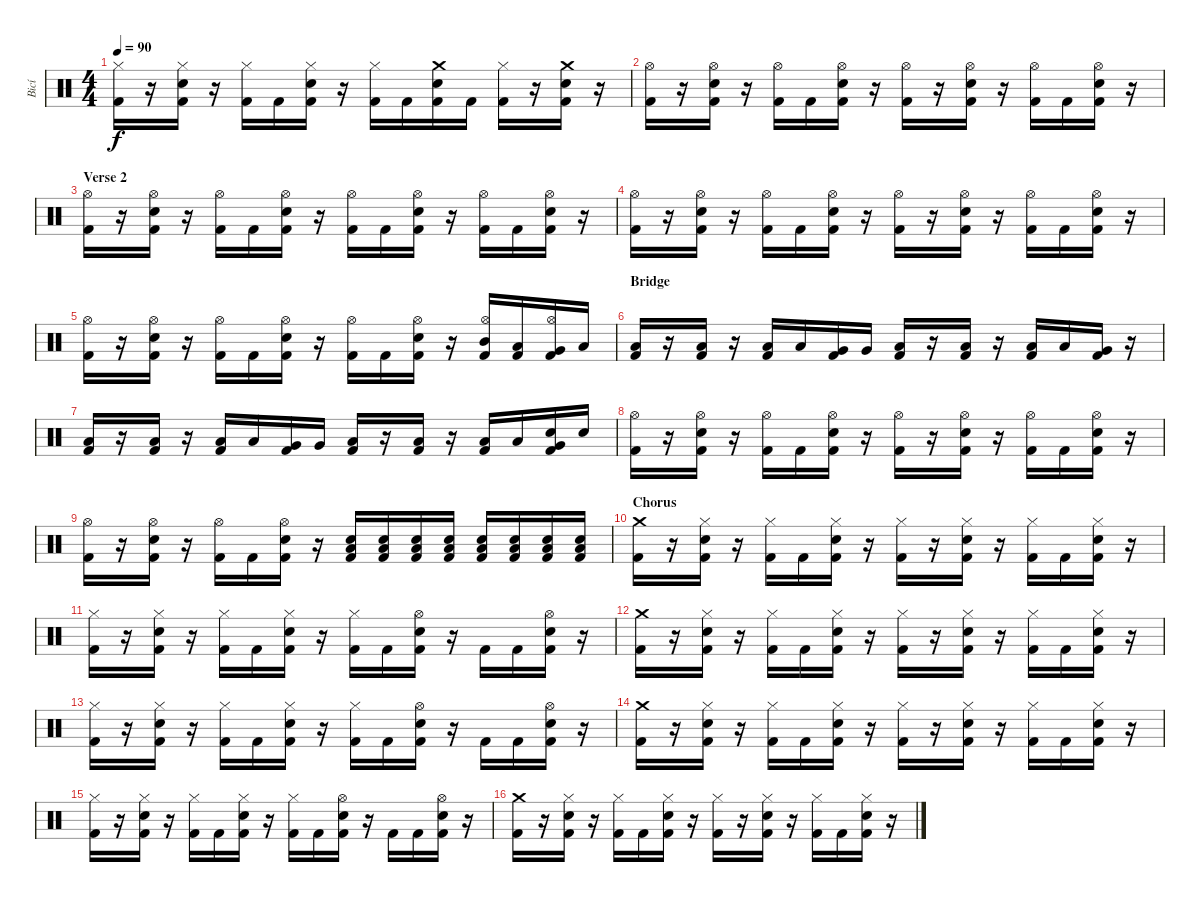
\track ("Bicí" "Bicí") {instrument percussion}
\staff {score}
\articulation defaults
\ts (4 4)
\tempo 90
\clef neutral
\ks c
("Hi-Hat (closed)" "Kick (hit) 2").16{dy f} r.16 ("Hi-Hat (closed)" "Electric Snare (hit)" "Kick (hit) 2").16 r.16 ("Hi-Hat (closed)" "Kick (hit) 2").16 "Kick (hit) 2".16 ("Hi-Hat (closed)" "Electric Snare (hit)" "Kick (hit) 2").16 r.16 ("Hi-Hat (closed)" "Kick (hit) 2").16 "Kick (hit) 2".16 ("Crash medium (hit)" "Electric Snare (hit)" "Kick (hit) 2").16 "Kick (hit) 2".16 ("Hi-Hat (closed)" "Kick (hit) 2").16 r.16 ("Crash medium (hit)" "Electric Snare (hit)" "Kick (hit) 2").16 r.16 |
("Hi-Hat (open)" "Kick (hit) 2").16 r.16 ("Hi-Hat (open)" "Electric Snare (hit)" "Kick (hit) 2").16 r.16 ("Hi-Hat (open)" "Kick (hit) 2").16 "Kick (hit) 2".16 ("Hi-Hat (open)" "Electric Snare (hit)" "Kick (hit) 2").16 r.16 ("Hi-Hat (open)" "Kick (hit) 2").16 r.16 ("Hi-Hat (open)" "Electric Snare (hit)" "Kick (hit) 2").16 r.16 ("Hi-Hat (open)" "Kick (hit) 2").16 "Kick (hit) 2".16 ("Hi-Hat (open)" "Electric Snare (hit)" "Kick (hit) 2").16 r.16 |
\section ("" "Verse 2")
("Hi-Hat (open)" "Kick (hit) 2").16 r.16 ("Hi-Hat (open)" "Electric Snare (hit)" "Kick (hit) 2").16 r.16 ("Hi-Hat (open)" "Kick (hit) 2").16 "Kick (hit) 2".16 ("Hi-Hat (open)" "Electric Snare (hit)" "Kick (hit) 2").16 r.16 ("Hi-Hat (open)" "Kick (hit) 2").16 "Kick (hit) 2".16 ("Hi-Hat (open)" "Electric Snare (hit)" "Kick (hit) 2").16 r.16 ("Hi-Hat (open)" "Kick (hit) 2").16 "Kick (hit) 2".16 ("Hi-Hat (open)" "Electric Snare (hit)" "Kick (hit) 2").16 r.16 |
("Hi-Hat (open)" "Kick (hit) 2").16 r.16 ("Hi-Hat (open)" "Electric Snare (hit)" "Kick (hit) 2").16 r.16 ("Hi-Hat (open)" "Kick (hit) 2").16 "Kick (hit) 2".16 ("Hi-Hat (open)" "Electric Snare (hit)" "Kick (hit) 2").16 r.16 ("Hi-Hat (open)" "Kick (hit) 2").16 r.16 ("Hi-Hat (open)" "Electric Snare (hit)" "Kick (hit) 2").16 r.16 ("Hi-Hat (open)" "Kick (hit) 2").16 "Kick (hit) 2".16 ("Hi-Hat (open)" "Electric Snare (hit)" "Kick (hit) 2").16 r.16 |
("Hi-Hat (open)" "Kick (hit) 2").16 r.16 ("Hi-Hat (open)" "Electric Snare (hit)" "Kick (hit) 2").16 r.16 ("Hi-Hat (open)" "Kick (hit) 2").16 "Kick (hit) 2".16 ("Hi-Hat (open)" "Electric Snare (hit)" "Kick (hit) 2").16 r.16 ("Hi-Hat (open)" "Kick (hit) 2").16 "Kick (hit) 2".16 ("Hi-Hat (open)" "Electric Snare (hit)" "Kick (hit) 2").16 r.16 ("Hi-Hat (open)" "Mid Tom (hit)" "Kick (hit) 2").16 ("Low Tom (hit)" "Kick (hit) 2").16 ("Hi-Hat (open)" "Very Low Tom (hit)" "Kick (hit) 2").16 "Low Floor Tom (hit)".16 |
\section ("" "Bridge")
("Low Tom (hit)" "Kick (hit) 2").16 r.16 ("Low Tom (hit)" "Kick (hit) 2").16 r.16 ("Low Tom (hit)" "Kick (hit) 2").16 "Low Tom (hit)".16 ("Very Low Tom (hit)" "Kick (hit) 2").16 "Very Low Tom (hit)".16 ("Low Tom (hit)" "Kick (hit) 2").16 r.16 ("Low Tom (hit)" "Kick (hit) 2").16 r.16 ("Low Tom (hit)" "Kick (hit) 2").16 "Low Tom (hit)".16 ("Very Low Tom (hit)" "Kick (hit) 2").16 r.16 |
("Low Tom (hit)" "Kick (hit) 2").16 r.16 ("Low Tom (hit)" "Kick (hit) 2").16 r.16 ("Low Tom (hit)" "Kick (hit) 2").16 "Low Tom (hit)".16 ("Very Low Tom (hit)" "Kick (hit) 2").16 "Very Low Tom (hit)".16 ("Low Tom (hit)" "Kick (hit) 2").16 r.16 ("Low Tom (hit)" "Kick (hit) 2").16 r.16 ("Low Tom (hit)" "Kick (hit) 2").16 "Low Tom (hit)".16 ("Very Low Tom (hit)" "Electric Snare (hit)" "Kick (hit) 2").16 "Electric Snare (hit)".16 |
("Hi-Hat (open)" "Kick (hit) 2").16 r.16 ("Hi-Hat (open)" "Electric Snare (hit)" "Kick (hit) 2").16 r.16 ("Hi-Hat (open)" "Kick (hit) 2").16 "Kick (hit) 2".16 ("Hi-Hat (open)" "Electric Snare (hit)" "Kick (hit) 2").16 r.16 ("Hi-Hat (open)" "Kick (hit) 2").16 r.16 ("Hi-Hat (open)" "Electric Snare (hit)" "Kick (hit) 2").16 r.16 ("Hi-Hat (open)" "Kick (hit) 2").16 "Kick (hit) 2".16 ("Hi-Hat (open)" "Electric Snare (hit)" "Kick (hit) 2").16 r.16 |
("Hi-Hat (open)" "Kick (hit) 2").16 r.16 ("Hi-Hat (open)" "Electric Snare (hit)" "Kick (hit) 2").16 r.16 ("Hi-Hat (open)" "Kick (hit) 2").16 "Kick (hit) 2".16 ("Hi-Hat (open)" "Electric Snare (hit)" "Kick (hit) 2").16 r.16 ("Low Tom (hit)" "Electric Snare (hit)" "Kick (hit) 2").16 ("Low Tom (hit)" "Electric Snare (hit)" "Kick (hit) 2").16 ("Low Tom (hit)" "Electric Snare (hit)" "Kick (hit) 2").16 ("Low Tom (hit)" "Electric Snare (hit)" "Kick (hit) 2").16 ("Low Tom (hit)" "Electric Snare (hit)" "Kick (hit) 2").16 ("Low Tom (hit)" "Electric Snare (hit)" "Kick (hit) 2").16 ("Low Tom (hit)" "Electric Snare (hit)" "Kick (hit) 2").16 ("Low Tom (hit)" "Electric Snare (hit)" "Kick (hit) 2").16 |
\section ("" "Chorus")
("Crash medium (hit)" "Kick (hit) 2").16 r.16 ("Hi-Hat (closed)" "Electric Snare (hit)" "Kick (hit) 2").16 r.16 ("Hi-Hat (closed)" "Kick (hit) 2").16 "Kick (hit) 2".16 ("Hi-Hat (closed)" "Electric Snare (hit)" "Kick (hit) 2").16 r.16 ("Hi-Hat (closed)" "Kick (hit) 2").16 r.16 ("Hi-Hat (closed)" "Electric Snare (hit)" "Kick (hit) 2").16 r.16 ("Hi-Hat (closed)" "Kick (hit) 2").16 "Kick (hit) 2".16 ("Hi-Hat (closed)" "Electric Snare (hit)" "Kick (hit) 2").16 r.16 |
("Hi-Hat (closed)" "Kick (hit) 2").16 r.16 ("Hi-Hat (closed)" "Electric Snare (hit)" "Kick (hit) 2").16 r.16 ("Hi-Hat (closed)" "Kick (hit) 2").16 "Kick (hit) 2".16 ("Hi-Hat (closed)" "Electric Snare (hit)" "Kick (hit) 2").16 r.16 ("Hi-Hat (closed)" "Kick (hit) 2").16 "Kick (hit) 2".16 ("Hi-Hat (open)" "Electric Snare (hit)" "Kick (hit) 2").16 r.16 "Kick (hit) 2".16 "Kick (hit) 2".16 ("Hi-Hat (open)" "Electric Snare (hit)" "Kick (hit) 2").16 r.16 |
("Crash medium (hit)" "Kick (hit) 2").16 r.16 ("Hi-Hat (closed)" "Electric Snare (hit)" "Kick (hit) 2").16 r.16 ("Hi-Hat (closed)" "Kick (hit) 2").16 "Kick (hit) 2".16 ("Hi-Hat (closed)" "Electric Snare (hit)" "Kick (hit) 2").16 r.16 ("Hi-Hat (closed)" "Kick (hit) 2").16 r.16 ("Hi-Hat (closed)" "Electric Snare (hit)" "Kick (hit) 2").16 r.16 ("Hi-Hat (closed)" "Kick (hit) 2").16 "Kick (hit) 2".16 ("Hi-Hat (closed)" "Electric Snare (hit)" "Kick (hit) 2").16 r.16 |
("Hi-Hat (closed)" "Kick (hit) 2").16 r.16 ("Hi-Hat (closed)" "Electric Snare (hit)" "Kick (hit) 2").16 r.16 ("Hi-Hat (closed)" "Kick (hit) 2").16 "Kick (hit) 2".16 ("Hi-Hat (closed)" "Electric Snare (hit)" "Kick (hit) 2").16 r.16 ("Hi-Hat (closed)" "Kick (hit) 2").16 "Kick (hit) 2".16 ("Hi-Hat (open)" "Electric Snare (hit)" "Kick (hit) 2").16 r.16 "Kick (hit) 2".16 "Kick (hit) 2".16 ("Hi-Hat (open)" "Electric Snare (hit)" "Kick (hit) 2").16 r.16 |
("Crash medium (hit)" "Kick (hit) 2").16 r.16 ("Hi-Hat (closed)" "Electric Snare (hit)" "Kick (hit) 2").16 r.16 ("Hi-Hat (closed)" "Kick (hit) 2").16 "Kick (hit) 2".16 ("Hi-Hat (closed)" "Electric Snare (hit)" "Kick (hit) 2").16 r.16 ("Hi-Hat (closed)" "Kick (hit) 2").16 r.16 ("Hi-Hat (closed)" "Electric Snare (hit)" "Kick (hit) 2").16 r.16 ("Hi-Hat (closed)" "Kick (hit) 2").16 "Kick (hit) 2".16 ("Hi-Hat (closed)" "Electric Snare (hit)" "Kick (hit) 2").16 r.16 |
("Hi-Hat (closed)" "Kick (hit) 2").16 r.16 ("Hi-Hat (closed)" "Electric Snare (hit)" "Kick (hit) 2").16 r.16 ("Hi-Hat (closed)" "Kick (hit) 2").16 "Kick (hit) 2".16 ("Hi-Hat (closed)" "Electric Snare (hit)" "Kick (hit) 2").16 r.16 ("Hi-Hat (closed)" "Kick (hit) 2").16 "Kick (hit) 2".16 ("Hi-Hat (open)" "Electric Snare (hit)" "Kick (hit) 2").16 r.16 "Kick (hit) 2".16 "Kick (hit) 2".16 ("Hi-Hat (open)" "Electric Snare (hit)" "Kick (hit) 2").16 r.16 |
("Crash medium (hit)" "Kick (hit) 2").16 r.16 ("Hi-Hat (closed)" "Electric Snare (hit)" "Kick (hit) 2").16 r.16 ("Hi-Hat (closed)" "Kick (hit) 2").16 "Kick (hit) 2".16 ("Hi-Hat (closed)" "Electric Snare (hit)" "Kick (hit) 2").16 r.16 ("Hi-Hat (closed)" "Kick (hit) 2").16 r.16 ("Hi-Hat (closed)" "Electric Snare (hit)" "Kick (hit) 2").16 r.16 ("Hi-Hat (closed)" "Kick (hit) 2").16 "Kick (hit) 2".16 ("Hi-Hat (closed)" "Electric Snare (hit)" "Kick (hit) 2").16 r.16
